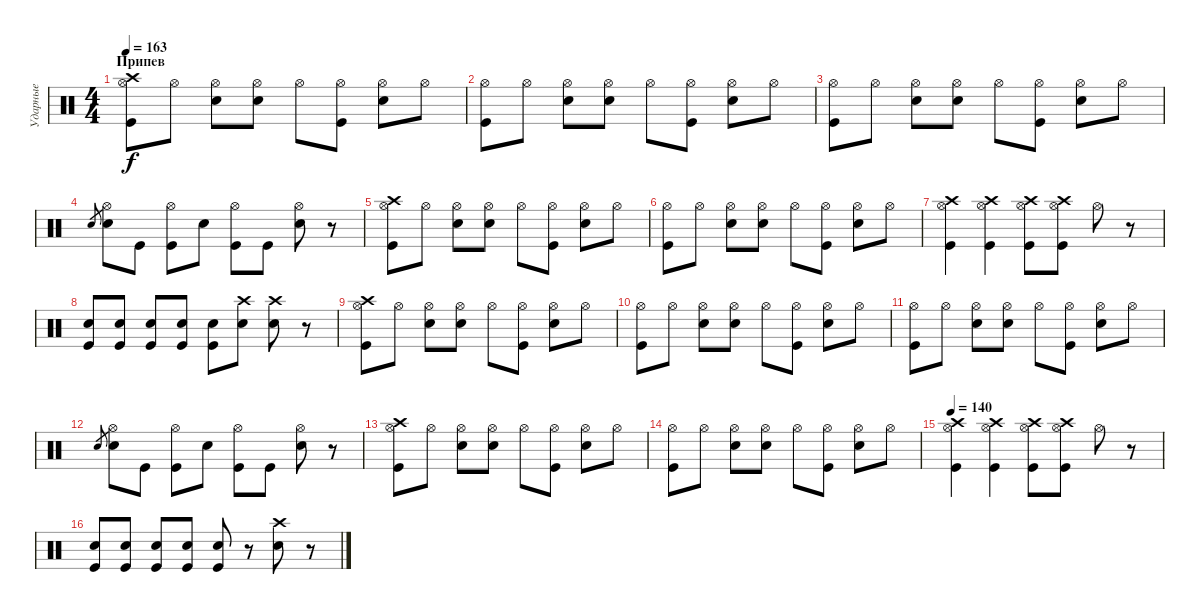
\track ("Ударные" "Ударные") {instrument percussion}
\staff {score}
\articulation defaults
\ts (4 4)
\section ("" "Припев")
\tempo 163
\clef neutral
\ks c
("Kick (hit)" "Hi-Hat (open)" "Crash high (hit)").8{dy f} "Hi-Hat (open)".8 ("Hi-Hat (open)" "Snare (hit) 2").8 ("Hi-Hat (open)" "Snare (hit) 2").8 "Hi-Hat (open)".8 ("Kick (hit)" "Hi-Hat (open)").8 ("Hi-Hat (open)" "Snare (hit) 2").8 "Hi-Hat (open)".8 |
("Kick (hit)" "Hi-Hat (open)").8 "Hi-Hat (open)".8 ("Hi-Hat (open)" "Snare (hit) 2").8 ("Hi-Hat (open)" "Snare (hit) 2").8 "Hi-Hat (open)".8 ("Kick (hit)" "Hi-Hat (open)").8 ("Hi-Hat (open)" "Snare (hit) 2").8 "Hi-Hat (open)".8 |
("Kick (hit)" "Hi-Hat (open)").8 "Hi-Hat (open)".8 ("Hi-Hat (open)" "Snare (hit) 2").8 ("Hi-Hat (open)" "Snare (hit) 2").8 "Hi-Hat (open)".8 ("Kick (hit)" "Hi-Hat (open)").8 ("Hi-Hat (open)" "Snare (hit) 2").8 "Hi-Hat (open)".8 |
"Snare (hit) 2".8{gr} ("Hi-Hat (open)" "Snare (hit) 2").8 "Kick (hit)".8 ("Kick (hit)" "Hi-Hat (open)").8 "Snare (hit) 2".8 ("Kick (hit)" "Hi-Hat (open)").8 "Kick (hit)".8 ("Hi-Hat (open)" "Snare (hit) 2").8 r.8 |
("Kick (hit)" "Hi-Hat (open)" "Crash high (hit)").8 "Hi-Hat (open)".8 ("Hi-Hat (open)" "Snare (hit) 2").8 ("Hi-Hat (open)" "Snare (hit) 2").8 "Hi-Hat (open)".8 ("Kick (hit)" "Hi-Hat (open)").8 ("Hi-Hat (open)" "Snare (hit) 2").8 "Hi-Hat (open)".8 |
("Kick (hit)" "Hi-Hat (open)").8 "Hi-Hat (open)".8 ("Hi-Hat (open)" "Snare (hit) 2").8 ("Hi-Hat (open)" "Snare (hit) 2").8 "Hi-Hat (open)".8 ("Kick (hit)" "Hi-Hat (open)").8 ("Hi-Hat (open)" "Snare (hit) 2").8 "Hi-Hat (open)".8 |
("Kick (hit)" "Hi-Hat (open)" "Crash high (hit)").4 ("Kick (hit)" "Hi-Hat (open)" "Crash high (hit)").4 ("Kick (hit)" "Hi-Hat (open)" "Crash high (hit)").8 ("Kick (hit)" "Hi-Hat (open)" "Crash high (hit)").8 "Hi-Hat (open)".8 r.8 |
("Kick (hit)" "Snare (hit) 2").8 ("Kick (hit)" "Snare (hit) 2").8 ("Kick (hit)" "Snare (hit) 2").8 ("Kick (hit)" "Snare (hit) 2").8 ("Kick (hit)" "Snare (hit) 2").8 ("Snare (hit) 2" "Crash high (hit)").8 ("Snare (hit) 2" "Crash high (hit)").8 r.8 |
("Kick (hit)" "Hi-Hat (open)" "Crash high (hit)").8 "Hi-Hat (open)".8 ("Hi-Hat (open)" "Snare (hit) 2").8 ("Hi-Hat (open)" "Snare (hit) 2").8 "Hi-Hat (open)".8 ("Kick (hit)" "Hi-Hat (open)").8 ("Hi-Hat (open)" "Snare (hit) 2").8 "Hi-Hat (open)".8 |
("Kick (hit)" "Hi-Hat (open)").8 "Hi-Hat (open)".8 ("Hi-Hat (open)" "Snare (hit) 2").8 ("Hi-Hat (open)" "Snare (hit) 2").8 "Hi-Hat (open)".8 ("Kick (hit)" "Hi-Hat (open)").8 ("Hi-Hat (open)" "Snare (hit) 2").8 "Hi-Hat (open)".8 |
("Kick (hit)" "Hi-Hat (open)").8 "Hi-Hat (open)".8 ("Hi-Hat (open)" "Snare (hit) 2").8 ("Hi-Hat (open)" "Snare (hit) 2").8 "Hi-Hat (open)".8 ("Kick (hit)" "Hi-Hat (open)").8 ("Hi-Hat (open)" "Snare (hit) 2").8 "Hi-Hat (open)".8 |
"Snare (hit) 2".8{gr} ("Hi-Hat (open)" "Snare (hit) 2").8 "Kick (hit)".8 ("Kick (hit)" "Hi-Hat (open)").8 "Snare (hit) 2".8 ("Kick (hit)" "Hi-Hat (open)").8 "Kick (hit)".8 ("Hi-Hat (open)" "Snare (hit) 2").8 r.8 |
("Kick (hit)" "Hi-Hat (open)" "Crash high (hit)").8 "Hi-Hat (open)".8 ("Hi-Hat (open)" "Snare (hit) 2").8 ("Hi-Hat (open)" "Snare (hit) 2").8 "Hi-Hat (open)".8 ("Kick (hit)" "Hi-Hat (open)").8 ("Hi-Hat (open)" "Snare (hit) 2").8 "Hi-Hat (open)".8 |
("Kick (hit)" "Hi-Hat (open)").8 "Hi-Hat (open)".8 ("Hi-Hat (open)" "Snare (hit) 2").8 ("Hi-Hat (open)" "Snare (hit) 2").8 "Hi-Hat (open)".8 ("Kick (hit)" "Hi-Hat (open)").8 ("Hi-Hat (open)" "Snare (hit) 2").8 "Hi-Hat (open)".8 |
\tempo 140
("Kick (hit)" "Hi-Hat (open)" "Crash high (hit)").4 ("Kick (hit)" "Hi-Hat (open)" "Crash high (hit)").4 ("Kick (hit)" "Hi-Hat (open)" "Crash high (hit)").8 ("Kick (hit)" "Hi-Hat (open)" "Crash high (hit)").8 "Hi-Hat (open)".8 r.8 |
("Kick (hit)" "Snare (hit) 2").8 ("Kick (hit)" "Snare (hit) 2").8 ("Kick (hit)" "Snare (hit) 2").8 ("Kick (hit)" "Snare (hit) 2").8 ("Kick (hit)" "Snare (hit) 2").8 r.8 ("Snare (hit) 2" "Crash high (hit)").8 r.8
